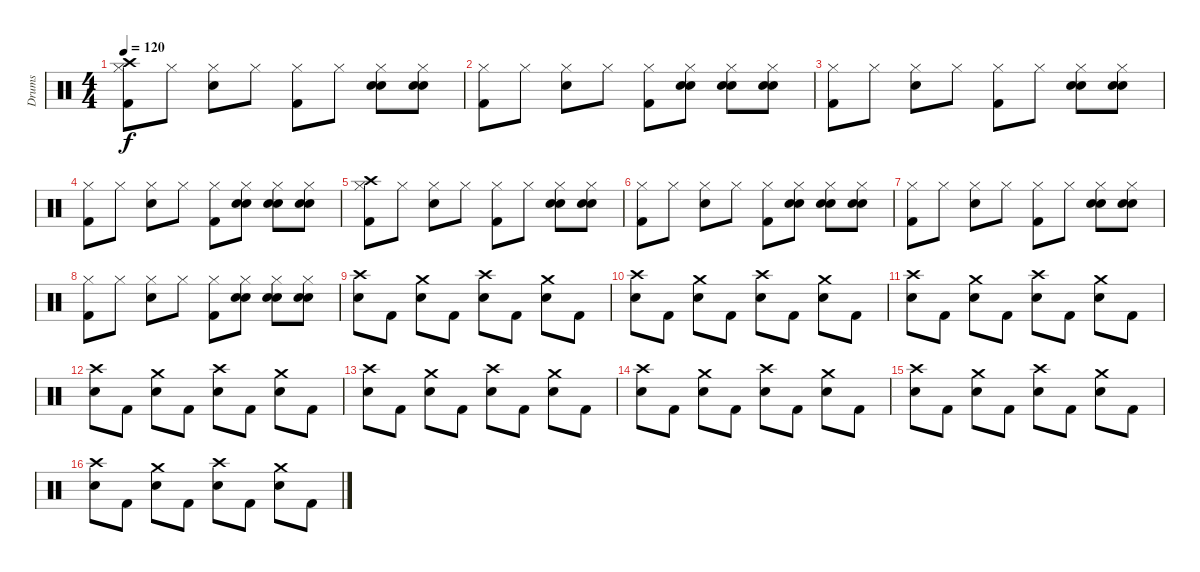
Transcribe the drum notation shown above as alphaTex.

\track ("Drums" "Drums") {instrument percussion}
\staff {score}
\articulation defaults
\ts (4 4)
\tempo 120
\clef neutral
\ks c
("Crash high (hit)" "Hi-Hat (closed)" "Kick (hit) 2").8{dy f} "Hi-Hat (closed)".8 ("Hi-Hat (closed)" "Electric Snare (hit)").8 "Hi-Hat (closed)".8 ("Hi-Hat (closed)" "Kick (hit) 2").8 "Hi-Hat (closed)".8 ("Hi-Hat (closed)" "Hand Clap (hit)" "Electric Snare (hit)").8 ("Hi-Hat (closed)" "Hand Clap (hit)" "Electric Snare (hit)").8 |
("Hi-Hat (closed)" "Kick (hit) 2").8 "Hi-Hat (closed)".8 ("Hi-Hat (closed)" "Electric Snare (hit)").8 "Hi-Hat (closed)".8 ("Hi-Hat (closed)" "Kick (hit) 2").8 ("Hi-Hat (closed)" "Hand Clap (hit)" "Electric Snare (hit)").8 ("Hi-Hat (closed)" "Hand Clap (hit)" "Electric Snare (hit)").8 ("Hi-Hat (closed)" "Hand Clap (hit)" "Electric Snare (hit)").8 |
("Hi-Hat (closed)" "Kick (hit) 2").8 "Hi-Hat (closed)".8 ("Hi-Hat (closed)" "Electric Snare (hit)").8 "Hi-Hat (closed)".8 ("Hi-Hat (closed)" "Kick (hit) 2").8 "Hi-Hat (closed)".8 ("Hi-Hat (closed)" "Hand Clap (hit)" "Electric Snare (hit)").8 ("Hi-Hat (closed)" "Hand Clap (hit)" "Electric Snare (hit)").8 |
("Hi-Hat (closed)" "Kick (hit) 2").8 "Hi-Hat (closed)".8 ("Hi-Hat (closed)" "Electric Snare (hit)").8 "Hi-Hat (closed)".8 ("Hi-Hat (closed)" "Kick (hit) 2").8 ("Hi-Hat (closed)" "Hand Clap (hit)" "Electric Snare (hit)").8 ("Hi-Hat (closed)" "Hand Clap (hit)" "Electric Snare (hit)").8 ("Hi-Hat (closed)" "Hand Clap (hit)" "Electric Snare (hit)").8 |
("Crash high (hit)" "Hi-Hat (closed)" "Kick (hit) 2").8 "Hi-Hat (closed)".8 ("Hi-Hat (closed)" "Electric Snare (hit)").8 "Hi-Hat (closed)".8 ("Hi-Hat (closed)" "Kick (hit) 2").8 "Hi-Hat (closed)".8 ("Hi-Hat (closed)" "Hand Clap (hit)" "Electric Snare (hit)").8 ("Hi-Hat (closed)" "Hand Clap (hit)" "Electric Snare (hit)").8 |
("Hi-Hat (closed)" "Kick (hit) 2").8 "Hi-Hat (closed)".8 ("Hi-Hat (closed)" "Electric Snare (hit)").8 "Hi-Hat (closed)".8 ("Hi-Hat (closed)" "Kick (hit) 2").8 ("Hi-Hat (closed)" "Hand Clap (hit)" "Electric Snare (hit)").8 ("Hi-Hat (closed)" "Hand Clap (hit)" "Electric Snare (hit)").8 ("Hi-Hat (closed)" "Hand Clap (hit)" "Electric Snare (hit)").8 |
("Hi-Hat (closed)" "Kick (hit) 2").8 "Hi-Hat (closed)".8 ("Hi-Hat (closed)" "Electric Snare (hit)").8 "Hi-Hat (closed)".8 ("Hi-Hat (closed)" "Kick (hit) 2").8 "Hi-Hat (closed)".8 ("Hi-Hat (closed)" "Hand Clap (hit)" "Electric Snare (hit)").8 ("Hi-Hat (closed)" "Hand Clap (hit)" "Electric Snare (hit)").8 |
("Hi-Hat (closed)" "Kick (hit) 2").8 "Hi-Hat (closed)".8 ("Hi-Hat (closed)" "Electric Snare (hit)").8 "Hi-Hat (closed)".8 ("Hi-Hat (closed)" "Kick (hit) 2").8 ("Hi-Hat (closed)" "Hand Clap (hit)" "Electric Snare (hit)").8 ("Hi-Hat (closed)" "Hand Clap (hit)" "Electric Snare (hit)").8 ("Hi-Hat (closed)" "Hand Clap (hit)" "Electric Snare (hit)").8 |
("Crash high (hit)" "Electric Snare (hit)").8 "Kick (hit) 2".8 ("Crash medium (hit)" "Electric Snare (hit)").8 "Kick (hit) 2".8 ("Crash high (hit)" "Electric Snare (hit)").8 "Kick (hit) 2".8 ("Crash medium (hit)" "Electric Snare (hit)").8 "Kick (hit) 2".8 |
("Crash high (hit)" "Electric Snare (hit)").8 "Kick (hit) 2".8 ("Crash medium (hit)" "Electric Snare (hit)").8 "Kick (hit) 2".8 ("Crash high (hit)" "Electric Snare (hit)").8 "Kick (hit) 2".8 ("Crash medium (hit)" "Electric Snare (hit)").8 "Kick (hit) 2".8 |
("Crash high (hit)" "Electric Snare (hit)").8 "Kick (hit) 2".8 ("Crash medium (hit)" "Electric Snare (hit)").8 "Kick (hit) 2".8 ("Crash high (hit)" "Electric Snare (hit)").8 "Kick (hit) 2".8 ("Crash medium (hit)" "Electric Snare (hit)").8 "Kick (hit) 2".8 |
("Crash high (hit)" "Electric Snare (hit)").8 "Kick (hit) 2".8 ("Crash medium (hit)" "Electric Snare (hit)").8 "Kick (hit) 2".8 ("Crash high (hit)" "Electric Snare (hit)").8 "Kick (hit) 2".8 ("Crash medium (hit)" "Electric Snare (hit)").8 "Kick (hit) 2".8 |
("Crash high (hit)" "Electric Snare (hit)").8 "Kick (hit) 2".8 ("Crash medium (hit)" "Electric Snare (hit)").8 "Kick (hit) 2".8 ("Crash high (hit)" "Electric Snare (hit)").8 "Kick (hit) 2".8 ("Crash medium (hit)" "Electric Snare (hit)").8 "Kick (hit) 2".8 |
("Crash high (hit)" "Electric Snare (hit)").8 "Kick (hit) 2".8 ("Crash medium (hit)" "Electric Snare (hit)").8 "Kick (hit) 2".8 ("Crash high (hit)" "Electric Snare (hit)").8 "Kick (hit) 2".8 ("Crash medium (hit)" "Electric Snare (hit)").8 "Kick (hit) 2".8 |
("Crash high (hit)" "Electric Snare (hit)").8 "Kick (hit) 2".8 ("Crash medium (hit)" "Electric Snare (hit)").8 "Kick (hit) 2".8 ("Crash high (hit)" "Electric Snare (hit)").8 "Kick (hit) 2".8 ("Crash medium (hit)" "Electric Snare (hit)").8 "Kick (hit) 2".8 |
("Crash high (hit)" "Electric Snare (hit)").8 "Kick (hit) 2".8 ("Crash medium (hit)" "Electric Snare (hit)").8 "Kick (hit) 2".8 ("Crash high (hit)" "Electric Snare (hit)").8 "Kick (hit) 2".8 ("Crash medium (hit)" "Electric Snare (hit)").8 "Kick (hit) 2".8
